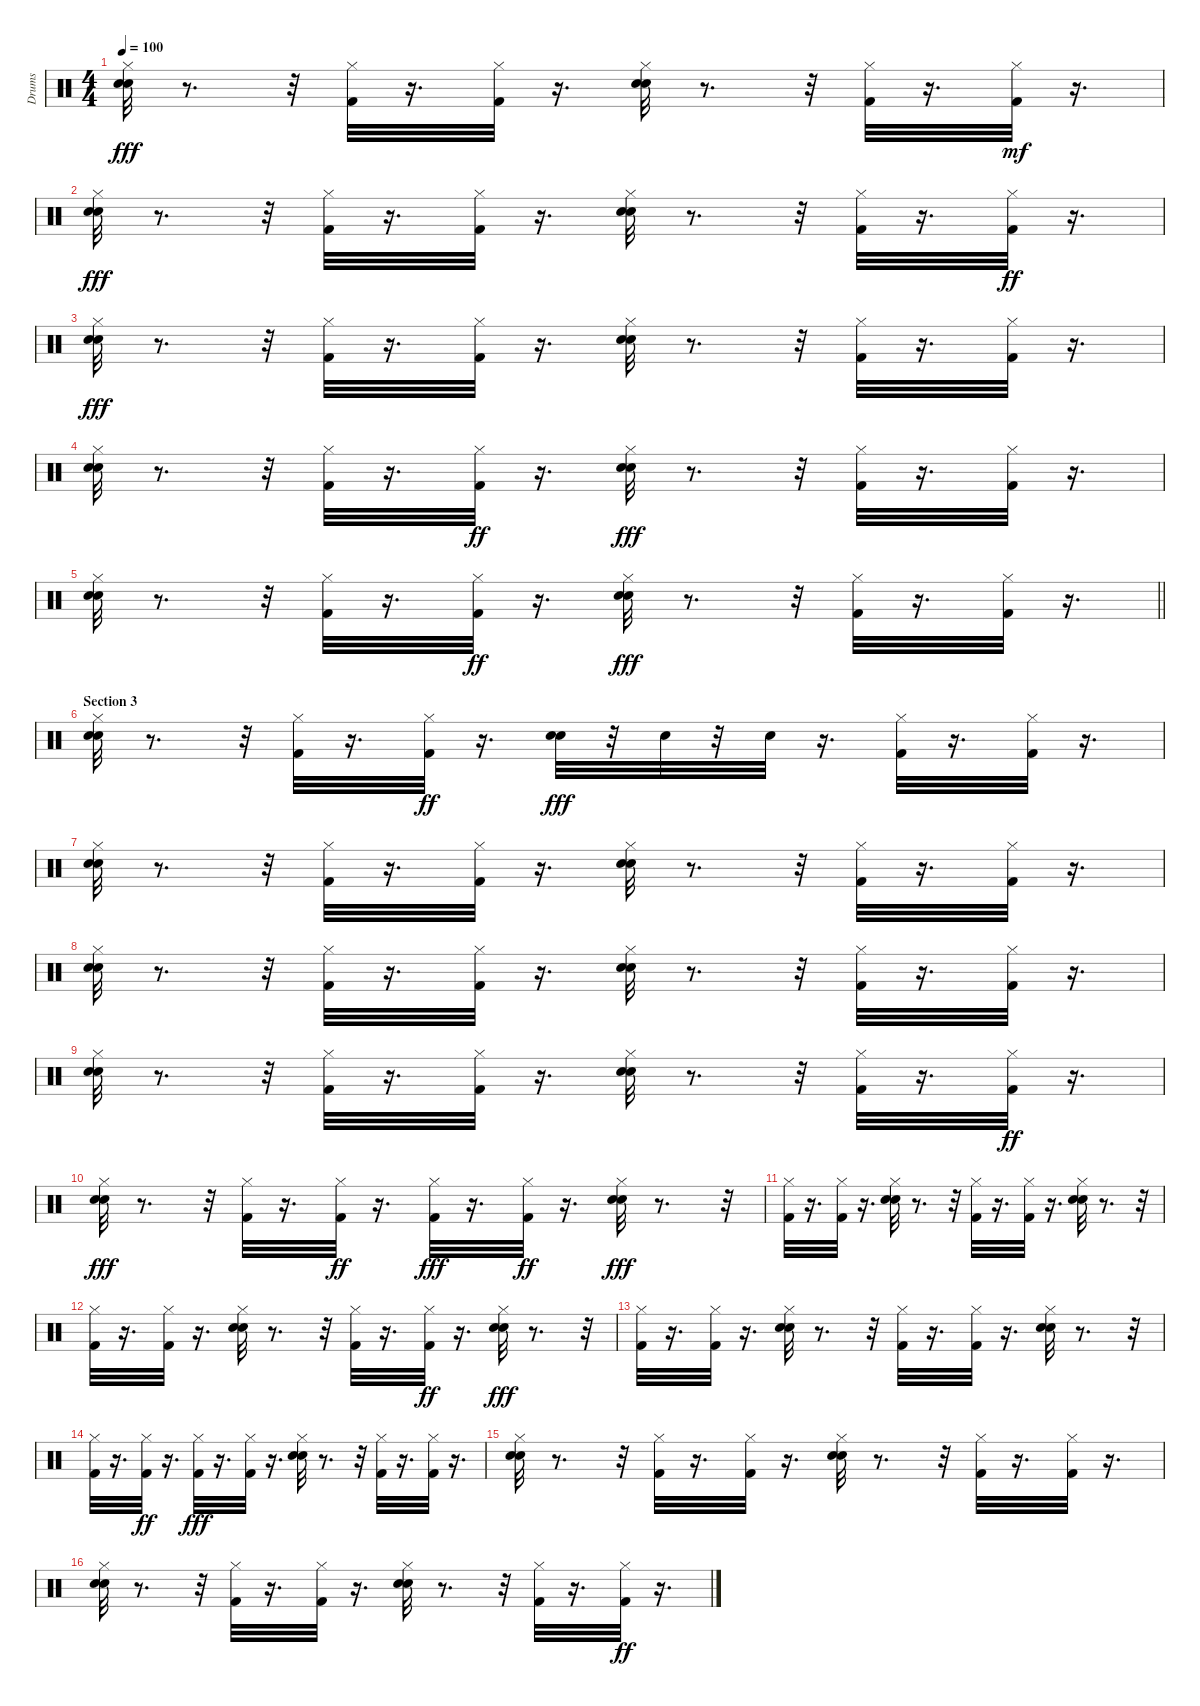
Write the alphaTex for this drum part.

\track ("Drums" "Drums") {instrument percussion}
\staff {score}
\articulation defaults
\ts (4 4)
\tempo 100
\clef neutral
\ks c
("Hi-Hat (closed)" "Snare (hit) 2" "Hand Clap (hit)").32{dy fff} r.8{d} r.32 ("Hi-Hat (closed)" "Kick (hit) 2").32 r.16{d} ("Kick (hit) 2" "Hi-Hat (closed)").32 r.16{d} ("Hand Clap (hit)" "Hi-Hat (closed)" "Snare (hit) 2").32 r.8{d} r.32 ("Hi-Hat (closed)" "Kick (hit) 2").32 r.16{d} ("Kick (hit) 2" "Hi-Hat (closed)").32{dy mf} r.16{d} |
("Snare (hit) 2" "Hand Clap (hit)" "Hi-Hat (closed)").32{dy fff} r.8{d} r.32 ("Hi-Hat (closed)" "Kick (hit) 2").32 r.16{d} ("Kick (hit) 2" "Hi-Hat (closed)").32 r.16{d} ("Hand Clap (hit)" "Hi-Hat (closed)" "Snare (hit) 2").32 r.8{d} r.32 ("Hi-Hat (closed)" "Kick (hit) 2").32 r.16{d} ("Kick (hit) 2" "Hi-Hat (closed)").32{dy ff} r.16{d} |
("Snare (hit) 2" "Hand Clap (hit)" "Hi-Hat (closed)").32{dy fff} r.8{d} r.32 ("Kick (hit) 2" "Hi-Hat (closed)").32 r.16{d} ("Hi-Hat (closed)" "Kick (hit) 2").32 r.16{d} ("Hand Clap (hit)" "Snare (hit) 2" "Hi-Hat (closed)").32 r.8{d} r.32 ("Hi-Hat (closed)" "Kick (hit) 2").32 r.16{d} ("Hi-Hat (closed)" "Kick (hit) 2").32 r.16{d} |
("Hi-Hat (closed)" "Snare (hit) 2" "Hand Clap (hit)").32 r.8{d} r.32 ("Hi-Hat (closed)" "Kick (hit) 2").32 r.16{d} ("Kick (hit) 2" "Hi-Hat (closed)").32{dy ff} r.16{d} ("Hi-Hat (closed)" "Snare (hit) 2" "Hand Clap (hit)").32{dy fff} r.8{d} r.32 ("Hi-Hat (closed)" "Kick (hit) 2").32 r.16{d} ("Hi-Hat (closed)" "Kick (hit) 2").32 r.16{d} |
\barLineRight lightlight
("Hand Clap (hit)" "Snare (hit) 2" "Hi-Hat (closed)").32 r.8{d} r.32 ("Hi-Hat (closed)" "Kick (hit) 2").32 r.16{d} ("Kick (hit) 2" "Hi-Hat (closed)").32{dy ff} r.16{d} ("Snare (hit) 2" "Hand Clap (hit)" "Hi-Hat (closed)").32{dy fff} r.8{d} r.32 ("Hi-Hat (closed)" "Kick (hit) 2").32 r.16{d} ("Kick (hit) 2" "Hi-Hat (closed)").32 r.16{d} |
\section ("" "Section 3")
("Hand Clap (hit)" "Hi-Hat (closed)" "Snare (hit) 2").32 r.8{d} r.32 ("Hi-Hat (closed)" "Kick (hit) 2").32 r.16{d} ("Kick (hit) 2" "Hi-Hat (closed)").32{dy ff} r.16{d} ("Snare (hit) 2" "Hand Clap (hit)").32{dy fff} r.32 "Snare (hit) 2".32 r.32 "Snare (hit) 2".32 r.16{d} ("Kick (hit) 2" "Hi-Hat (closed)").32 r.16{d} ("Hi-Hat (closed)" "Kick (hit) 2").32 r.16{d} |
("Snare (hit) 2" "Hand Clap (hit)" "Hi-Hat (closed)").32 r.8{d} r.32 ("Hi-Hat (closed)" "Kick (hit) 2").32 r.16{d} ("Hi-Hat (closed)" "Kick (hit) 2").32 r.16{d} ("Hi-Hat (closed)" "Snare (hit) 2" "Hand Clap (hit)").32 r.8{d} r.32 ("Kick (hit) 2" "Hi-Hat (closed)").32 r.16{d} ("Hi-Hat (closed)" "Kick (hit) 2").32 r.16{d} |
("Snare (hit) 2" "Hand Clap (hit)" "Hi-Hat (closed)").32 r.8{d} r.32 ("Hi-Hat (closed)" "Kick (hit) 2").32 r.16{d} ("Hi-Hat (closed)" "Kick (hit) 2").32 r.16{d} ("Hi-Hat (closed)" "Hand Clap (hit)" "Snare (hit) 2").32 r.8{d} r.32 ("Kick (hit) 2" "Hi-Hat (closed)").32 r.16{d} ("Hi-Hat (closed)" "Kick (hit) 2").32 r.16{d} |
("Snare (hit) 2" "Hi-Hat (closed)" "Hand Clap (hit)").32 r.8{d} r.32 ("Hi-Hat (closed)" "Kick (hit) 2").32 r.16{d} ("Hi-Hat (closed)" "Kick (hit) 2").32 r.16{d} ("Hand Clap (hit)" "Snare (hit) 2" "Hi-Hat (closed)").32 r.8{d} r.32 ("Hi-Hat (closed)" "Kick (hit) 2").32 r.16{d} ("Kick (hit) 2" "Hi-Hat (closed)").32{dy ff} r.16{d} |
("Hi-Hat (closed)" "Snare (hit) 2" "Hand Clap (hit)").32{dy fff} r.8{d} r.32 ("Hi-Hat (closed)" "Kick (hit) 2").32 r.16{d} ("Hi-Hat (closed)" "Kick (hit) 2").32{dy ff} r.16{d} ("Hi-Hat (closed)" "Kick (hit) 2").32{dy fff} r.16{d} ("Kick (hit) 2" "Hi-Hat (closed)").32{dy ff} r.16{d} ("Snare (hit) 2" "Hi-Hat (closed)" "Hand Clap (hit)").32{dy fff} r.8{d} r.32 |
("Hi-Hat (closed)" "Kick (hit) 2").32 r.16{d} ("Hi-Hat (closed)" "Kick (hit) 2").32 r.16{d} ("Hi-Hat (closed)" "Hand Clap (hit)" "Snare (hit) 2").32 r.8{d} r.32 ("Kick (hit) 2" "Hi-Hat (closed)").32 r.16{d} ("Hi-Hat (closed)" "Kick (hit) 2").32 r.16{d} ("Hand Clap (hit)" "Snare (hit) 2" "Hi-Hat (closed)").32 r.8{d} r.32 |
("Hi-Hat (closed)" "Kick (hit) 2").32 r.16{d} ("Hi-Hat (closed)" "Kick (hit) 2").32 r.16{d} ("Hand Clap (hit)" "Snare (hit) 2" "Hi-Hat (closed)").32 r.8{d} r.32 ("Kick (hit) 2" "Hi-Hat (closed)").32 r.16{d} ("Kick (hit) 2" "Hi-Hat (closed)").32{dy ff} r.16{d} ("Hand Clap (hit)" "Snare (hit) 2" "Hi-Hat (closed)").32{dy fff} r.8{d} r.32 |
("Hi-Hat (closed)" "Kick (hit) 2").32 r.16{d} ("Hi-Hat (closed)" "Kick (hit) 2").32 r.16{d} ("Hi-Hat (closed)" "Hand Clap (hit)" "Snare (hit) 2").32 r.8{d} r.32 ("Hi-Hat (closed)" "Kick (hit) 2").32 r.16{d} ("Hi-Hat (closed)" "Kick (hit) 2").32 r.16{d} ("Hi-Hat (closed)" "Snare (hit) 2" "Hand Clap (hit)").32 r.8{d} r.32 |
("Kick (hit) 2" "Hi-Hat (closed)").32 r.16{d} ("Hi-Hat (closed)" "Kick (hit) 2").32{dy ff} r.16{d} ("Hi-Hat (closed)" "Kick (hit) 2").32{dy fff} r.16{d} ("Hi-Hat (closed)" "Kick (hit) 2").32 r.16{d} ("Hi-Hat (closed)" "Hand Clap (hit)" "Snare (hit) 2").32 r.8{d} r.32 ("Kick (hit) 2" "Hi-Hat (closed)").32 r.16{d} ("Kick (hit) 2" "Hi-Hat (closed)").32 r.16{d} |
("Hand Clap (hit)" "Hi-Hat (closed)" "Snare (hit) 2").32 r.8{d} r.32 ("Kick (hit) 2" "Hi-Hat (closed)").32 r.16{d} ("Kick (hit) 2" "Hi-Hat (closed)").32 r.16{d} ("Hand Clap (hit)" "Hi-Hat (closed)" "Snare (hit) 2").32 r.8{d} r.32 ("Kick (hit) 2" "Hi-Hat (closed)").32 r.16{d} ("Hi-Hat (closed)" "Kick (hit) 2").32 r.16{d} |
("Hi-Hat (closed)" "Snare (hit) 2" "Hand Clap (hit)").32 r.8{d} r.32 ("Hi-Hat (closed)" "Kick (hit) 2").32 r.16{d} ("Hi-Hat (closed)" "Kick (hit) 2").32 r.16{d} ("Hand Clap (hit)" "Hi-Hat (closed)" "Snare (hit) 2").32 r.8{d} r.32 ("Hi-Hat (closed)" "Kick (hit) 2").32 r.16{d} ("Kick (hit) 2" "Hi-Hat (closed)").32{dy ff} r.16{d}
